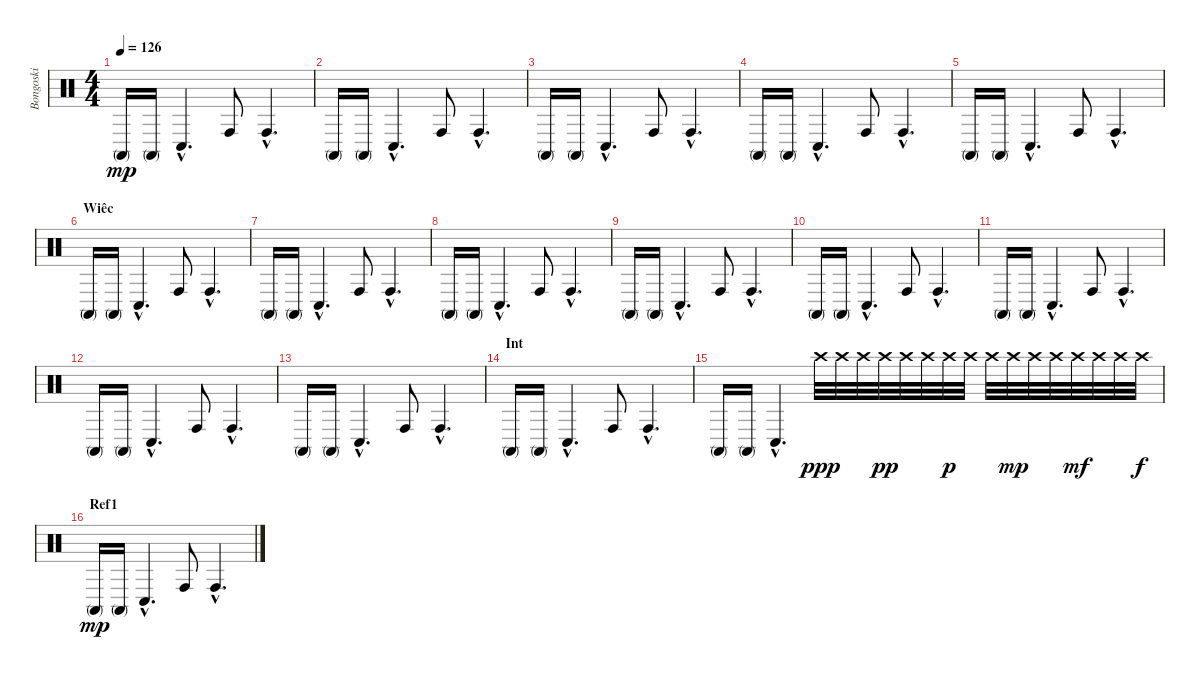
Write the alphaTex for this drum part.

\track ("Bongoski" "Bongoski") {instrument percussion}
\staff {score}
\articulation defaults
\ts (4 4)
\tempo 126
\clef neutral
\ks c "Conga high (mute)".16{dy mp} "Conga high (mute)".16 "Conga low (hit)"{hac}.4{d} "Conga high (hit)".8 "Conga high (hit)"{hac}.4{d}
|
"Conga high (mute)".16 "Conga high (mute)".16 "Conga low (hit)"{hac}.4{d} "Conga high (hit)".8 "Conga high (hit)"{hac}.4{d} |
"Conga high (mute)".16 "Conga high (mute)".16 "Conga low (hit)"{hac}.4{d} "Conga high (hit)".8 "Conga high (hit)"{hac}.4{d} |
"Conga high (mute)".16 "Conga high (mute)".16 "Conga low (hit)"{hac}.4{d} "Conga high (hit)".8 "Conga high (hit)"{hac}.4{d} |
"Conga high (mute)".16 "Conga high (mute)".16 "Conga low (hit)"{hac}.4{d} "Conga high (hit)".8 "Conga high (hit)"{hac}.4{d} |
\section ("" "Wiêc")
"Conga high (mute)".16 "Conga high (mute)".16 "Conga low (hit)"{hac}.4{d} "Conga high (hit)".8 "Conga high (hit)"{hac}.4{d} |
"Conga high (mute)".16 "Conga high (mute)".16 "Conga low (hit)"{hac}.4{d} "Conga high (hit)".8 "Conga high (hit)"{hac}.4{d} |
"Conga high (mute)".16 "Conga high (mute)".16 "Conga low (hit)"{hac}.4{d} "Conga high (hit)".8 "Conga high (hit)"{hac}.4{d} |
"Conga high (mute)".16 "Conga high (mute)".16 "Conga low (hit)"{hac}.4{d} "Conga high (hit)".8 "Conga high (hit)"{hac}.4{d} |
"Conga high (mute)".16 "Conga high (mute)".16 "Conga low (hit)"{hac}.4{d} "Conga high (hit)".8 "Conga high (hit)"{hac}.4{d} |
"Conga high (mute)".16 "Conga high (mute)".16 "Conga low (hit)"{hac}.4{d} "Conga high (hit)".8 "Conga high (hit)"{hac}.4{d} |
"Conga high (mute)".16 "Conga high (mute)".16 "Conga low (hit)"{hac}.4{d} "Conga high (hit)".8 "Conga high (hit)"{hac}.4{d} |
"Conga high (mute)".16 "Conga high (mute)".16 "Conga low (hit)"{hac}.4{d} "Conga high (hit)".8 "Conga high (hit)"{hac}.4{d} |
\section ("" "Int")
"Conga high (mute)".16 "Conga high (mute)".16 "Conga low (hit)"{hac}.4{d} "Conga high (hit)".8 "Conga high (hit)"{hac}.4{d} |
"Conga high (mute)".16 "Conga high (mute)".16 "Conga low (hit)"{hac}.4{d} "Crash high (hit)".32{dy ppp} "Crash high (hit)".32 "Crash high (hit)".32 "Crash high (hit)".32{dy pp} "Crash high (hit)".32 "Crash high (hit)".32 "Crash high (hit)".32{dy p} "Crash high (hit)".32 "Crash high (hit)".32 "Crash high (hit)".32{dy mp} "Crash high (hit)".32 "Crash high (hit)".32 "Crash high (hit)".32{dy mf} "Crash high (hit)".32 "Crash high (hit)".32 "Crash high (hit)".32{dy f} |
\section ("" "Ref1")
"Conga high (mute)".16{dy mp} "Conga high (mute)".16 "Conga low (hit)"{hac}.4{d} "Conga high (hit)".8 "Conga high (hit)"{hac}.4{d}
